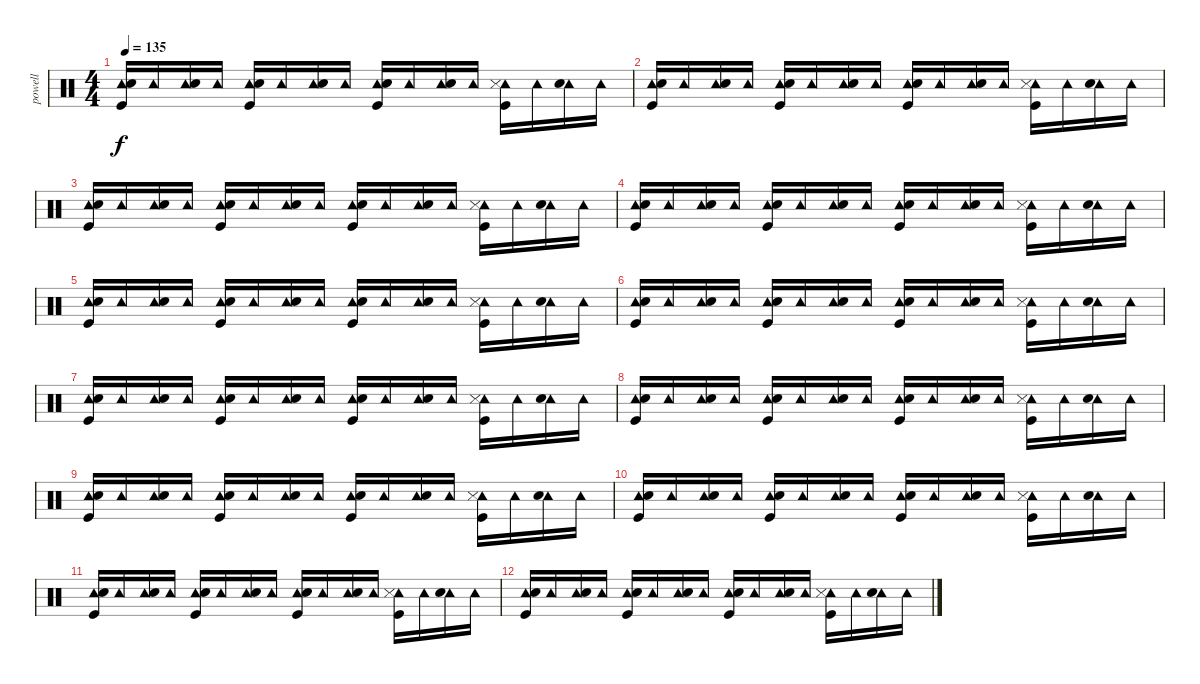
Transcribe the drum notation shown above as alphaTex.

\track ("powell" "powell") {instrument percussion}
\staff {score}
\articulation defaults
\ts (4 4)
\tempo 135
\clef neutral
\ks c
("Tambourine (hit)" "Electric Snare (hit)" "Kick (hit)").16{dy f} "Tambourine (hit)".16 ("Tambourine (hit)" "Electric Snare (hit)").16 "Tambourine (hit)".16 ("Tambourine (hit)" "Electric Snare (hit)" "Kick (hit)").16 "Tambourine (hit)".16 ("Tambourine (hit)" "Electric Snare (hit)").16 "Tambourine (hit)".16 ("Tambourine (hit)" "Electric Snare (hit)" "Kick (hit)").16 "Tambourine (hit)".16 ("Tambourine (hit)" "Electric Snare (hit)").16 "Tambourine (hit)".16 ("Tambourine (hit)" "Snare (side stick) 3" "Kick (hit)").16 "Tambourine (hit)".16 ("Tambourine (hit)" "Electric Snare (hit)").16 "Tambourine (hit)".16 |
("Tambourine (hit)" "Electric Snare (hit)" "Kick (hit)").16 "Tambourine (hit)".16 ("Tambourine (hit)" "Electric Snare (hit)").16 "Tambourine (hit)".16 ("Tambourine (hit)" "Electric Snare (hit)" "Kick (hit)").16 "Tambourine (hit)".16 ("Tambourine (hit)" "Electric Snare (hit)").16 "Tambourine (hit)".16 ("Tambourine (hit)" "Electric Snare (hit)" "Kick (hit)").16 "Tambourine (hit)".16 ("Tambourine (hit)" "Electric Snare (hit)").16 "Tambourine (hit)".16 ("Tambourine (hit)" "Snare (side stick) 3" "Kick (hit)").16 "Tambourine (hit)".16 ("Tambourine (hit)" "Electric Snare (hit)").16 "Tambourine (hit)".16 |
("Tambourine (hit)" "Electric Snare (hit)" "Kick (hit)").16 "Tambourine (hit)".16 ("Tambourine (hit)" "Electric Snare (hit)").16 "Tambourine (hit)".16 ("Tambourine (hit)" "Electric Snare (hit)" "Kick (hit)").16 "Tambourine (hit)".16 ("Tambourine (hit)" "Electric Snare (hit)").16 "Tambourine (hit)".16 ("Tambourine (hit)" "Electric Snare (hit)" "Kick (hit)").16 "Tambourine (hit)".16 ("Tambourine (hit)" "Electric Snare (hit)").16 "Tambourine (hit)".16 ("Tambourine (hit)" "Snare (side stick) 3" "Kick (hit)").16 "Tambourine (hit)".16 ("Tambourine (hit)" "Electric Snare (hit)").16 "Tambourine (hit)".16 |
("Tambourine (hit)" "Electric Snare (hit)" "Kick (hit)").16 "Tambourine (hit)".16 ("Tambourine (hit)" "Electric Snare (hit)").16 "Tambourine (hit)".16 ("Tambourine (hit)" "Electric Snare (hit)" "Kick (hit)").16 "Tambourine (hit)".16 ("Tambourine (hit)" "Electric Snare (hit)").16 "Tambourine (hit)".16 ("Tambourine (hit)" "Electric Snare (hit)" "Kick (hit)").16 "Tambourine (hit)".16 ("Tambourine (hit)" "Electric Snare (hit)").16 "Tambourine (hit)".16 ("Tambourine (hit)" "Snare (side stick) 3" "Kick (hit)").16 "Tambourine (hit)".16 ("Tambourine (hit)" "Electric Snare (hit)").16 "Tambourine (hit)".16 |
("Tambourine (hit)" "Electric Snare (hit)" "Kick (hit)").16 "Tambourine (hit)".16 ("Tambourine (hit)" "Electric Snare (hit)").16 "Tambourine (hit)".16 ("Tambourine (hit)" "Electric Snare (hit)" "Kick (hit)").16 "Tambourine (hit)".16 ("Tambourine (hit)" "Electric Snare (hit)").16 "Tambourine (hit)".16 ("Tambourine (hit)" "Electric Snare (hit)" "Kick (hit)").16 "Tambourine (hit)".16 ("Tambourine (hit)" "Electric Snare (hit)").16 "Tambourine (hit)".16 ("Tambourine (hit)" "Snare (side stick) 3" "Kick (hit)").16 "Tambourine (hit)".16 ("Tambourine (hit)" "Electric Snare (hit)").16 "Tambourine (hit)".16 |
("Tambourine (hit)" "Electric Snare (hit)" "Kick (hit)").16 "Tambourine (hit)".16 ("Tambourine (hit)" "Electric Snare (hit)").16 "Tambourine (hit)".16 ("Tambourine (hit)" "Electric Snare (hit)" "Kick (hit)").16 "Tambourine (hit)".16 ("Tambourine (hit)" "Electric Snare (hit)").16 "Tambourine (hit)".16 ("Tambourine (hit)" "Electric Snare (hit)" "Kick (hit)").16 "Tambourine (hit)".16 ("Tambourine (hit)" "Electric Snare (hit)").16 "Tambourine (hit)".16 ("Tambourine (hit)" "Snare (side stick) 3" "Kick (hit)").16 "Tambourine (hit)".16 ("Tambourine (hit)" "Electric Snare (hit)").16 "Tambourine (hit)".16 |
("Tambourine (hit)" "Electric Snare (hit)" "Kick (hit)").16 "Tambourine (hit)".16 ("Tambourine (hit)" "Electric Snare (hit)").16 "Tambourine (hit)".16 ("Tambourine (hit)" "Electric Snare (hit)" "Kick (hit)").16 "Tambourine (hit)".16 ("Tambourine (hit)" "Electric Snare (hit)").16 "Tambourine (hit)".16 ("Tambourine (hit)" "Electric Snare (hit)" "Kick (hit)").16 "Tambourine (hit)".16 ("Tambourine (hit)" "Electric Snare (hit)").16 "Tambourine (hit)".16 ("Tambourine (hit)" "Snare (side stick) 3" "Kick (hit)").16 "Tambourine (hit)".16 ("Tambourine (hit)" "Electric Snare (hit)").16 "Tambourine (hit)".16 |
("Tambourine (hit)" "Electric Snare (hit)" "Kick (hit)").16 "Tambourine (hit)".16 ("Tambourine (hit)" "Electric Snare (hit)").16 "Tambourine (hit)".16 ("Tambourine (hit)" "Electric Snare (hit)" "Kick (hit)").16 "Tambourine (hit)".16 ("Tambourine (hit)" "Electric Snare (hit)").16 "Tambourine (hit)".16 ("Tambourine (hit)" "Electric Snare (hit)" "Kick (hit)").16 "Tambourine (hit)".16 ("Tambourine (hit)" "Electric Snare (hit)").16 "Tambourine (hit)".16 ("Tambourine (hit)" "Snare (side stick) 3" "Kick (hit)").16 "Tambourine (hit)".16 ("Tambourine (hit)" "Electric Snare (hit)").16 "Tambourine (hit)".16 |
("Tambourine (hit)" "Electric Snare (hit)" "Kick (hit)").16 "Tambourine (hit)".16 ("Tambourine (hit)" "Electric Snare (hit)").16 "Tambourine (hit)".16 ("Tambourine (hit)" "Electric Snare (hit)" "Kick (hit)").16 "Tambourine (hit)".16 ("Tambourine (hit)" "Electric Snare (hit)").16 "Tambourine (hit)".16 ("Tambourine (hit)" "Electric Snare (hit)" "Kick (hit)").16 "Tambourine (hit)".16 ("Tambourine (hit)" "Electric Snare (hit)").16 "Tambourine (hit)".16 ("Tambourine (hit)" "Snare (side stick) 3" "Kick (hit)").16 "Tambourine (hit)".16 ("Tambourine (hit)" "Electric Snare (hit)").16 "Tambourine (hit)".16 |
("Tambourine (hit)" "Electric Snare (hit)" "Kick (hit)").16 "Tambourine (hit)".16 ("Tambourine (hit)" "Electric Snare (hit)").16 "Tambourine (hit)".16 ("Tambourine (hit)" "Electric Snare (hit)" "Kick (hit)").16 "Tambourine (hit)".16 ("Tambourine (hit)" "Electric Snare (hit)").16 "Tambourine (hit)".16 ("Tambourine (hit)" "Electric Snare (hit)" "Kick (hit)").16 "Tambourine (hit)".16 ("Tambourine (hit)" "Electric Snare (hit)").16 "Tambourine (hit)".16 ("Tambourine (hit)" "Snare (side stick) 3" "Kick (hit)").16 "Tambourine (hit)".16 ("Tambourine (hit)" "Electric Snare (hit)").16 "Tambourine (hit)".16 |
("Tambourine (hit)" "Electric Snare (hit)" "Kick (hit)").16 "Tambourine (hit)".16 ("Tambourine (hit)" "Electric Snare (hit)").16 "Tambourine (hit)".16 ("Tambourine (hit)" "Electric Snare (hit)" "Kick (hit)").16 "Tambourine (hit)".16 ("Tambourine (hit)" "Electric Snare (hit)").16 "Tambourine (hit)".16 ("Tambourine (hit)" "Electric Snare (hit)" "Kick (hit)").16 "Tambourine (hit)".16 ("Tambourine (hit)" "Electric Snare (hit)").16 "Tambourine (hit)".16 ("Tambourine (hit)" "Snare (side stick) 3" "Kick (hit)").16 "Tambourine (hit)".16 ("Tambourine (hit)" "Electric Snare (hit)").16 "Tambourine (hit)".16 |
("Tambourine (hit)" "Electric Snare (hit)" "Kick (hit)").16 "Tambourine (hit)".16 ("Tambourine (hit)" "Electric Snare (hit)").16 "Tambourine (hit)".16 ("Tambourine (hit)" "Electric Snare (hit)" "Kick (hit)").16 "Tambourine (hit)".16 ("Tambourine (hit)" "Electric Snare (hit)").16 "Tambourine (hit)".16 ("Tambourine (hit)" "Electric Snare (hit)" "Kick (hit)").16 "Tambourine (hit)".16 ("Tambourine (hit)" "Electric Snare (hit)").16 "Tambourine (hit)".16 ("Tambourine (hit)" "Snare (side stick) 3" "Kick (hit)").16 "Tambourine (hit)".16 ("Tambourine (hit)" "Electric Snare (hit)").16 "Tambourine (hit)".16
